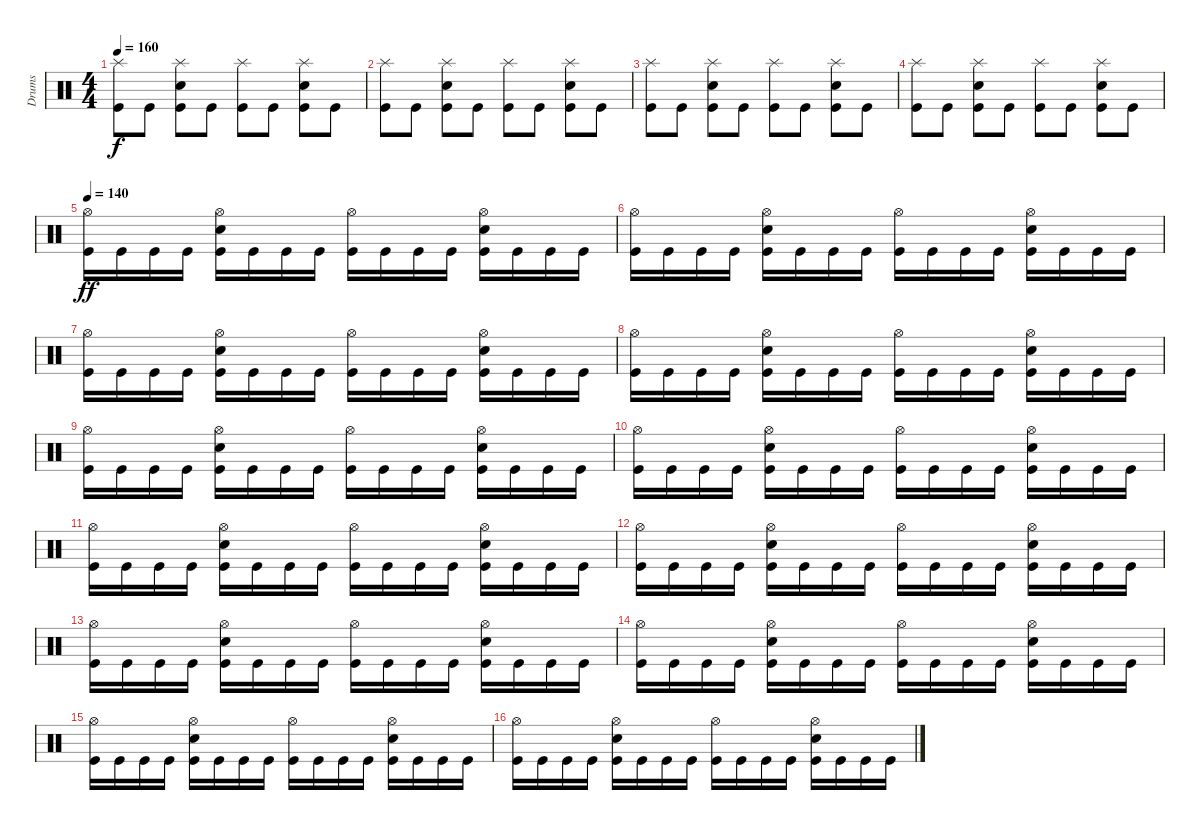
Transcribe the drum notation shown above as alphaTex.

\track ("Drums" "Drums") {instrument percussion}
\staff {score}
\articulation defaults
\ts (4 4)
\tempo 160
\clef neutral
\ks c
("Splash (hit)" "Kick (hit)").8{dy f} "Kick (hit)".8 ("Splash (hit)" "Snare (hit) 2" "Kick (hit)").8 "Kick (hit)".8 ("Splash (hit)" "Kick (hit)").8 "Kick (hit)".8 ("Splash (hit)" "Snare (hit) 2" "Kick (hit)").8 "Kick (hit)".8 |
("Splash (hit)" "Kick (hit)").8 "Kick (hit)".8 ("Splash (hit)" "Snare (hit) 2" "Kick (hit)").8 "Kick (hit)".8 ("Splash (hit)" "Kick (hit)").8 "Kick (hit)".8 ("Splash (hit)" "Snare (hit) 2" "Kick (hit)").8 "Kick (hit)".8 |
("Splash (hit)" "Kick (hit)").8 "Kick (hit)".8 ("Splash (hit)" "Snare (hit) 2" "Kick (hit)").8 "Kick (hit)".8 ("Splash (hit)" "Kick (hit)").8 "Kick (hit)".8 ("Splash (hit)" "Snare (hit) 2" "Kick (hit)").8 "Kick (hit)".8 |
("Splash (hit)" "Kick (hit)").8 "Kick (hit)".8 ("Splash (hit)" "Snare (hit) 2" "Kick (hit)").8 "Kick (hit)".8 ("Splash (hit)" "Kick (hit)").8 "Kick (hit)".8 ("Splash (hit)" "Snare (hit) 2" "Kick (hit)").8 "Kick (hit)".8 |
\tempo 140
("Hi-Hat (open)" "Kick (hit)").16{dy ff} "Kick (hit)".16 "Kick (hit)".16 "Kick (hit)".16 ("Hi-Hat (open)" "Snare (hit) 2" "Kick (hit)").16 "Kick (hit)".16 "Kick (hit)".16 "Kick (hit)".16 ("Hi-Hat (open)" "Kick (hit)").16 "Kick (hit)".16 "Kick (hit)".16 "Kick (hit)".16 ("Hi-Hat (open)" "Snare (hit) 2" "Kick (hit)").16 "Kick (hit)".16 "Kick (hit)".16 "Kick (hit)".16 |
("Hi-Hat (open)" "Kick (hit)").16 "Kick (hit)".16 "Kick (hit)".16 "Kick (hit)".16 ("Hi-Hat (open)" "Snare (hit) 2" "Kick (hit)").16 "Kick (hit)".16 "Kick (hit)".16 "Kick (hit)".16 ("Hi-Hat (open)" "Kick (hit)").16 "Kick (hit)".16 "Kick (hit)".16 "Kick (hit)".16 ("Hi-Hat (open)" "Snare (hit) 2" "Kick (hit)").16 "Kick (hit)".16 "Kick (hit)".16 "Kick (hit)".16 |
("Hi-Hat (open)" "Kick (hit)").16 "Kick (hit)".16 "Kick (hit)".16 "Kick (hit)".16 ("Hi-Hat (open)" "Snare (hit) 2" "Kick (hit)").16 "Kick (hit)".16 "Kick (hit)".16 "Kick (hit)".16 ("Hi-Hat (open)" "Kick (hit)").16 "Kick (hit)".16 "Kick (hit)".16 "Kick (hit)".16 ("Hi-Hat (open)" "Snare (hit) 2" "Kick (hit)").16 "Kick (hit)".16 "Kick (hit)".16 "Kick (hit)".16 |
("Hi-Hat (open)" "Kick (hit)").16 "Kick (hit)".16 "Kick (hit)".16 "Kick (hit)".16 ("Hi-Hat (open)" "Snare (hit) 2" "Kick (hit)").16 "Kick (hit)".16 "Kick (hit)".16 "Kick (hit)".16 ("Hi-Hat (open)" "Kick (hit)").16 "Kick (hit)".16 "Kick (hit)".16 "Kick (hit)".16 ("Hi-Hat (open)" "Snare (hit) 2" "Kick (hit)").16 "Kick (hit)".16 "Kick (hit)".16 "Kick (hit)".16 |
("Hi-Hat (open)" "Kick (hit)").16 "Kick (hit)".16 "Kick (hit)".16 "Kick (hit)".16 ("Hi-Hat (open)" "Snare (hit) 2" "Kick (hit)").16 "Kick (hit)".16 "Kick (hit)".16 "Kick (hit)".16 ("Hi-Hat (open)" "Kick (hit)").16 "Kick (hit)".16 "Kick (hit)".16 "Kick (hit)".16 ("Hi-Hat (open)" "Snare (hit) 2" "Kick (hit)").16 "Kick (hit)".16 "Kick (hit)".16 "Kick (hit)".16 |
("Hi-Hat (open)" "Kick (hit)").16 "Kick (hit)".16 "Kick (hit)".16 "Kick (hit)".16 ("Hi-Hat (open)" "Snare (hit) 2" "Kick (hit)").16 "Kick (hit)".16 "Kick (hit)".16 "Kick (hit)".16 ("Hi-Hat (open)" "Kick (hit)").16 "Kick (hit)".16 "Kick (hit)".16 "Kick (hit)".16 ("Hi-Hat (open)" "Snare (hit) 2" "Kick (hit)").16 "Kick (hit)".16 "Kick (hit)".16 "Kick (hit)".16 |
("Hi-Hat (open)" "Kick (hit)").16 "Kick (hit)".16 "Kick (hit)".16 "Kick (hit)".16 ("Hi-Hat (open)" "Snare (hit) 2" "Kick (hit)").16 "Kick (hit)".16 "Kick (hit)".16 "Kick (hit)".16 ("Hi-Hat (open)" "Kick (hit)").16 "Kick (hit)".16 "Kick (hit)".16 "Kick (hit)".16 ("Hi-Hat (open)" "Snare (hit) 2" "Kick (hit)").16 "Kick (hit)".16 "Kick (hit)".16 "Kick (hit)".16 |
("Hi-Hat (open)" "Kick (hit)").16 "Kick (hit)".16 "Kick (hit)".16 "Kick (hit)".16 ("Hi-Hat (open)" "Snare (hit) 2" "Kick (hit)").16 "Kick (hit)".16 "Kick (hit)".16 "Kick (hit)".16 ("Hi-Hat (open)" "Kick (hit)").16 "Kick (hit)".16 "Kick (hit)".16 "Kick (hit)".16 ("Hi-Hat (open)" "Snare (hit) 2" "Kick (hit)").16 "Kick (hit)".16 "Kick (hit)".16 "Kick (hit)".16 |
("Hi-Hat (open)" "Kick (hit)").16 "Kick (hit)".16 "Kick (hit)".16 "Kick (hit)".16 ("Hi-Hat (open)" "Snare (hit) 2" "Kick (hit)").16 "Kick (hit)".16 "Kick (hit)".16 "Kick (hit)".16 ("Hi-Hat (open)" "Kick (hit)").16 "Kick (hit)".16 "Kick (hit)".16 "Kick (hit)".16 ("Hi-Hat (open)" "Snare (hit) 2" "Kick (hit)").16 "Kick (hit)".16 "Kick (hit)".16 "Kick (hit)".16 |
("Hi-Hat (open)" "Kick (hit)").16 "Kick (hit)".16 "Kick (hit)".16 "Kick (hit)".16 ("Hi-Hat (open)" "Snare (hit) 2" "Kick (hit)").16 "Kick (hit)".16 "Kick (hit)".16 "Kick (hit)".16 ("Hi-Hat (open)" "Kick (hit)").16 "Kick (hit)".16 "Kick (hit)".16 "Kick (hit)".16 ("Hi-Hat (open)" "Snare (hit) 2" "Kick (hit)").16 "Kick (hit)".16 "Kick (hit)".16 "Kick (hit)".16 |
("Hi-Hat (open)" "Kick (hit)").16 "Kick (hit)".16 "Kick (hit)".16 "Kick (hit)".16 ("Hi-Hat (open)" "Snare (hit) 2" "Kick (hit)").16 "Kick (hit)".16 "Kick (hit)".16 "Kick (hit)".16 ("Hi-Hat (open)" "Kick (hit)").16 "Kick (hit)".16 "Kick (hit)".16 "Kick (hit)".16 ("Hi-Hat (open)" "Snare (hit) 2" "Kick (hit)").16 "Kick (hit)".16 "Kick (hit)".16 "Kick (hit)".16 |
("Hi-Hat (open)" "Kick (hit)").16 "Kick (hit)".16 "Kick (hit)".16 "Kick (hit)".16 ("Hi-Hat (open)" "Snare (hit) 2" "Kick (hit)").16 "Kick (hit)".16 "Kick (hit)".16 "Kick (hit)".16 ("Hi-Hat (open)" "Kick (hit)").16 "Kick (hit)".16 "Kick (hit)".16 "Kick (hit)".16 ("Hi-Hat (open)" "Snare (hit) 2" "Kick (hit)").16 "Kick (hit)".16 "Kick (hit)".16 "Kick (hit)".16
